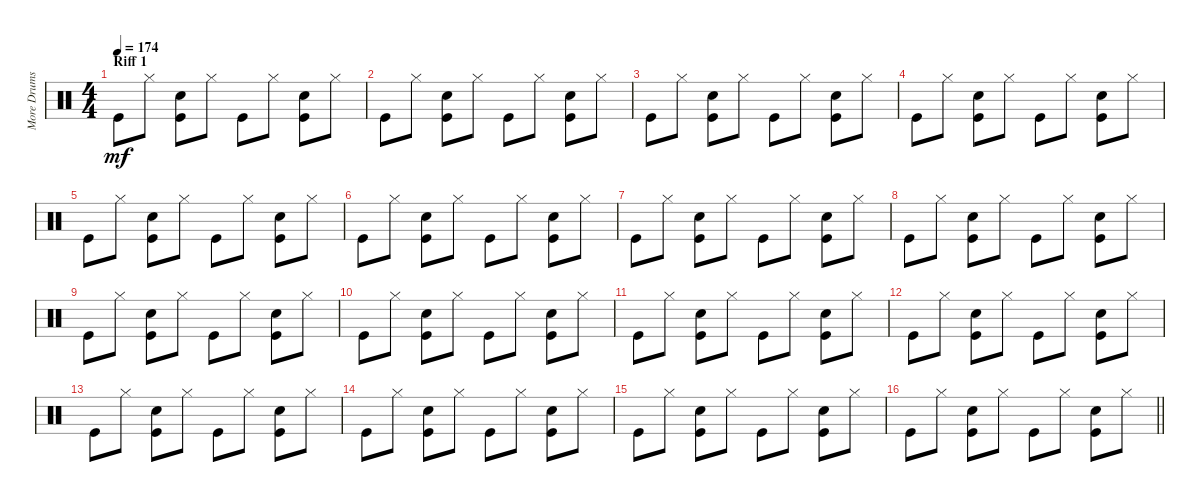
\track ("More Drums" "More Drums") {instrument percussion}
\staff {score}
\articulation defaults
\ts (4 4)
\section ("" "Riff 1")
\tempo 174
\clef neutral
\ks c "Kick (hit)".8{dy mf} "Hi-Hat (closed)".8
("Kick (hit)" "Electric Snare (hit)").8 "Hi-Hat (closed)".8 "Kick (hit)".8 "Hi-Hat (closed)".8 ("Kick (hit)" "Electric Snare (hit)").8 "Hi-Hat (closed)".8 |
"Kick (hit)".8 "Hi-Hat (closed)".8 ("Kick (hit)" "Electric Snare (hit)").8 "Hi-Hat (closed)".8 "Kick (hit)".8 "Hi-Hat (closed)".8 ("Kick (hit)" "Electric Snare (hit)").8 "Hi-Hat (closed)".8 |
"Kick (hit)".8 "Hi-Hat (closed)".8 ("Kick (hit)" "Electric Snare (hit)").8 "Hi-Hat (closed)".8 "Kick (hit)".8 "Hi-Hat (closed)".8 ("Kick (hit)" "Electric Snare (hit)").8 "Hi-Hat (closed)".8 |
"Kick (hit)".8 "Hi-Hat (closed)".8 ("Kick (hit)" "Electric Snare (hit)").8 "Hi-Hat (closed)".8 "Kick (hit)".8 "Hi-Hat (closed)".8 ("Kick (hit)" "Electric Snare (hit)").8 "Hi-Hat (closed)".8 |
"Kick (hit)".8 "Hi-Hat (closed)".8 ("Kick (hit)" "Electric Snare (hit)").8 "Hi-Hat (closed)".8 "Kick (hit)".8 "Hi-Hat (closed)".8 ("Kick (hit)" "Electric Snare (hit)").8 "Hi-Hat (closed)".8 |
"Kick (hit)".8 "Hi-Hat (closed)".8 ("Kick (hit)" "Electric Snare (hit)").8 "Hi-Hat (closed)".8 "Kick (hit)".8 "Hi-Hat (closed)".8 ("Kick (hit)" "Electric Snare (hit)").8 "Hi-Hat (closed)".8 |
"Kick (hit)".8 "Hi-Hat (closed)".8 ("Kick (hit)" "Electric Snare (hit)").8 "Hi-Hat (closed)".8 "Kick (hit)".8 "Hi-Hat (closed)".8 ("Kick (hit)" "Electric Snare (hit)").8 "Hi-Hat (closed)".8 |
"Kick (hit)".8 "Hi-Hat (closed)".8 ("Kick (hit)" "Electric Snare (hit)").8 "Hi-Hat (closed)".8 "Kick (hit)".8 "Hi-Hat (closed)".8 ("Kick (hit)" "Electric Snare (hit)").8 "Hi-Hat (closed)".8 |
"Kick (hit)".8 "Hi-Hat (closed)".8 ("Kick (hit)" "Electric Snare (hit)").8 "Hi-Hat (closed)".8 "Kick (hit)".8 "Hi-Hat (closed)".8 ("Kick (hit)" "Electric Snare (hit)").8 "Hi-Hat (closed)".8 |
"Kick (hit)".8 "Hi-Hat (closed)".8 ("Kick (hit)" "Electric Snare (hit)").8 "Hi-Hat (closed)".8 "Kick (hit)".8 "Hi-Hat (closed)".8 ("Kick (hit)" "Electric Snare (hit)").8 "Hi-Hat (closed)".8 |
"Kick (hit)".8 "Hi-Hat (closed)".8 ("Kick (hit)" "Electric Snare (hit)").8 "Hi-Hat (closed)".8 "Kick (hit)".8 "Hi-Hat (closed)".8 ("Kick (hit)" "Electric Snare (hit)").8 "Hi-Hat (closed)".8 |
"Kick (hit)".8 "Hi-Hat (closed)".8 ("Kick (hit)" "Electric Snare (hit)").8 "Hi-Hat (closed)".8 "Kick (hit)".8 "Hi-Hat (closed)".8 ("Kick (hit)" "Electric Snare (hit)").8 "Hi-Hat (closed)".8 |
"Kick (hit)".8 "Hi-Hat (closed)".8 ("Kick (hit)" "Electric Snare (hit)").8 "Hi-Hat (closed)".8 "Kick (hit)".8 "Hi-Hat (closed)".8 ("Kick (hit)" "Electric Snare (hit)").8 "Hi-Hat (closed)".8 |
"Kick (hit)".8 "Hi-Hat (closed)".8 ("Kick (hit)" "Electric Snare (hit)").8 "Hi-Hat (closed)".8 "Kick (hit)".8 "Hi-Hat (closed)".8 ("Kick (hit)" "Electric Snare (hit)").8 "Hi-Hat (closed)".8 |
"Kick (hit)".8 "Hi-Hat (closed)".8 ("Kick (hit)" "Electric Snare (hit)").8 "Hi-Hat (closed)".8 "Kick (hit)".8 "Hi-Hat (closed)".8 ("Kick (hit)" "Electric Snare (hit)").8 "Hi-Hat (closed)".8 |
\barLineRight lightlight "Kick (hit)".8 "Hi-Hat (closed)".8
("Kick (hit)" "Electric Snare (hit)").8 "Hi-Hat (closed)".8 "Kick (hit)".8 "Hi-Hat (closed)".8 ("Kick (hit)" "Electric Snare (hit)").8 "Hi-Hat (closed)".8
